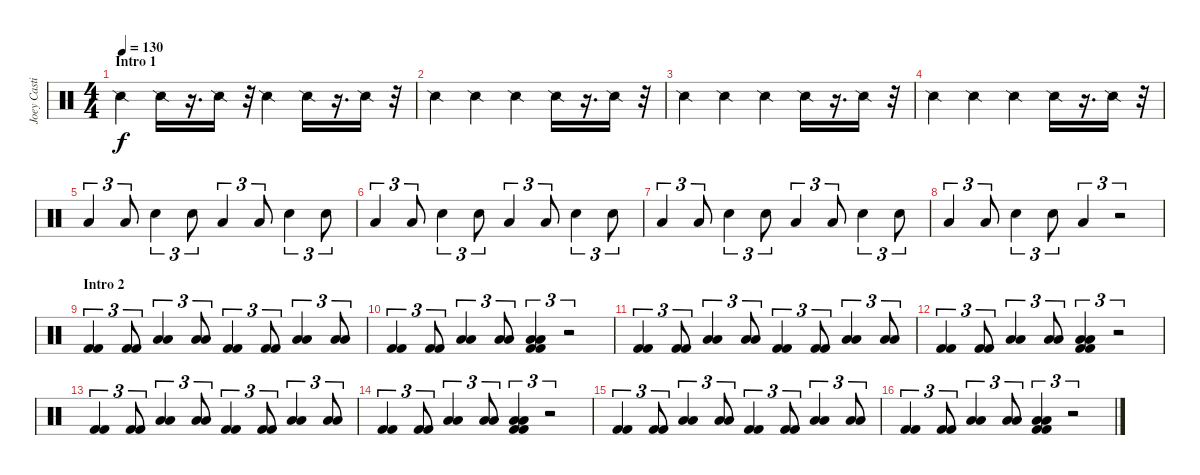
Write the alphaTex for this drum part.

\track ("Joey Castillo" "Joey Casti") {instrument percussion}
\staff {score}
\articulation defaults
\ts (4 4)
\section ("" "Intro 1")
\tempo 130
\clef neutral
\ks c "Snare (side stick) 2".4{dy f} "Snare (side stick) 2".16
r.16{d} "Snare (side stick) 2".16 r.32 "Snare (side stick) 2".4 "Snare (side stick) 2".16 r.16{d} "Snare (side stick) 2".16 r.32 |
"Snare (side stick) 2".4 "Snare (side stick) 2".4 "Snare (side stick) 2".4 "Snare (side stick) 2".16 r.16{d} "Snare (side stick) 2".16 r.32 |
"Snare (side stick) 2".4 "Snare (side stick) 2".4 "Snare (side stick) 2".4 "Snare (side stick) 2".16 r.16{d} "Snare (side stick) 2".16 r.32 |
"Snare (side stick) 2".4 "Snare (side stick) 2".4 "Snare (side stick) 2".4 "Snare (side stick) 2".16 r.16{d} "Snare (side stick) 2".16 r.32 |
"Low Floor Tom (hit)".4{tu (3 2)} "Low Floor Tom (hit)".8{tu (3 2)} "Electric Snare (hit)".4{tu (3 2)} "Electric Snare (hit)".8{tu (3 2)} "Low Floor Tom (hit)".4{tu (3 2)} "Low Floor Tom (hit)".8{tu (3 2)} "Electric Snare (hit)".4{tu (3 2)} "Electric Snare (hit)".8{tu (3 2)} |
"Low Floor Tom (hit)".4{tu (3 2)} "Low Floor Tom (hit)".8{tu (3 2)} "Electric Snare (hit)".4{tu (3 2)} "Electric Snare (hit)".8{tu (3 2)} "Low Floor Tom (hit)".4{tu (3 2)} "Low Floor Tom (hit)".8{tu (3 2)} "Electric Snare (hit)".4{tu (3 2)} "Electric Snare (hit)".8{tu (3 2)} |
"Low Floor Tom (hit)".4{tu (3 2)} "Low Floor Tom (hit)".8{tu (3 2)} "Electric Snare (hit)".4{tu (3 2)} "Electric Snare (hit)".8{tu (3 2)} "Low Floor Tom (hit)".4{tu (3 2)} "Low Floor Tom (hit)".8{tu (3 2)} "Electric Snare (hit)".4{tu (3 2)} "Electric Snare (hit)".8{tu (3 2)} |
"Low Floor Tom (hit)".4{tu (3 2)} "Low Floor Tom (hit)".8{tu (3 2)} "Electric Snare (hit)".4{tu (3 2)} "Electric Snare (hit)".8{tu (3 2)} "Low Floor Tom (hit)".4{tu (3 2)} r.2{tu (3 2)} |
\section ("" "Intro 2")
("Kick (hit) 2" "Kick (hit) 2").4{tu (3 2)} ("Kick (hit) 2" "Kick (hit) 2").8{tu (3 2)} ("Low Floor Tom (hit)" "Low Floor Tom (hit)").4{tu (3 2)} ("Low Floor Tom (hit)" "Low Floor Tom (hit)").8{tu (3 2)} ("Kick (hit) 2" "Kick (hit) 2").4{tu (3 2)} ("Kick (hit) 2" "Kick (hit) 2").8{tu (3 2)} ("Low Floor Tom (hit)" "Low Floor Tom (hit)").4{tu (3 2)} ("Low Floor Tom (hit)" "Low Floor Tom (hit)").8{tu (3 2)} |
("Kick (hit) 2" "Kick (hit) 2").4{tu (3 2)} ("Kick (hit) 2" "Kick (hit) 2").8{tu (3 2)} ("Low Floor Tom (hit)" "Low Floor Tom (hit)").4{tu (3 2)} ("Low Floor Tom (hit)" "Low Floor Tom (hit)").8{tu (3 2)} ("Low Floor Tom (hit)" "Low Floor Tom (hit)" "Kick (hit) 2" "Kick (hit) 2").4{tu (3 2)} r.2{tu (3 2)} |
("Kick (hit) 2" "Kick (hit) 2").4{tu (3 2)} ("Kick (hit) 2" "Kick (hit) 2").8{tu (3 2)} ("Low Floor Tom (hit)" "Low Floor Tom (hit)").4{tu (3 2)} ("Low Floor Tom (hit)" "Low Floor Tom (hit)").8{tu (3 2)} ("Kick (hit) 2" "Kick (hit) 2").4{tu (3 2)} ("Kick (hit) 2" "Kick (hit) 2").8{tu (3 2)} ("Low Floor Tom (hit)" "Low Floor Tom (hit)").4{tu (3 2)} ("Low Floor Tom (hit)" "Low Floor Tom (hit)").8{tu (3 2)} |
("Kick (hit) 2" "Kick (hit) 2").4{tu (3 2)} ("Kick (hit) 2" "Kick (hit) 2").8{tu (3 2)} ("Low Floor Tom (hit)" "Low Floor Tom (hit)").4{tu (3 2)} ("Low Floor Tom (hit)" "Low Floor Tom (hit)").8{tu (3 2)} ("Low Floor Tom (hit)" "Low Floor Tom (hit)" "Kick (hit) 2" "Kick (hit) 2").4{tu (3 2)} r.2{tu (3 2)} |
("Kick (hit) 2" "Kick (hit) 2").4{tu (3 2)} ("Kick (hit) 2" "Kick (hit) 2").8{tu (3 2)} ("Low Floor Tom (hit)" "Low Floor Tom (hit)").4{tu (3 2)} ("Low Floor Tom (hit)" "Low Floor Tom (hit)").8{tu (3 2)} ("Kick (hit) 2" "Kick (hit) 2").4{tu (3 2)} ("Kick (hit) 2" "Kick (hit) 2").8{tu (3 2)} ("Low Floor Tom (hit)" "Low Floor Tom (hit)").4{tu (3 2)} ("Low Floor Tom (hit)" "Low Floor Tom (hit)").8{tu (3 2)} |
("Kick (hit) 2" "Kick (hit) 2").4{tu (3 2)} ("Kick (hit) 2" "Kick (hit) 2").8{tu (3 2)} ("Low Floor Tom (hit)" "Low Floor Tom (hit)").4{tu (3 2)} ("Low Floor Tom (hit)" "Low Floor Tom (hit)").8{tu (3 2)} ("Low Floor Tom (hit)" "Low Floor Tom (hit)" "Kick (hit) 2" "Kick (hit) 2").4{tu (3 2)} r.2{tu (3 2)} |
("Kick (hit) 2" "Kick (hit) 2").4{tu (3 2)} ("Kick (hit) 2" "Kick (hit) 2").8{tu (3 2)} ("Low Floor Tom (hit)" "Low Floor Tom (hit)").4{tu (3 2)} ("Low Floor Tom (hit)" "Low Floor Tom (hit)").8{tu (3 2)} ("Kick (hit) 2" "Kick (hit) 2").4{tu (3 2)} ("Kick (hit) 2" "Kick (hit) 2").8{tu (3 2)} ("Low Floor Tom (hit)" "Low Floor Tom (hit)").4{tu (3 2)} ("Low Floor Tom (hit)" "Low Floor Tom (hit)").8{tu (3 2)} |
("Kick (hit) 2" "Kick (hit) 2").4{tu (3 2)} ("Kick (hit) 2" "Kick (hit) 2").8{tu (3 2)} ("Low Floor Tom (hit)" "Low Floor Tom (hit)").4{tu (3 2)} ("Low Floor Tom (hit)" "Low Floor Tom (hit)").8{tu (3 2)} ("Low Floor Tom (hit)" "Low Floor Tom (hit)" "Kick (hit) 2" "Kick (hit) 2").4{tu (3 2)} r.2{tu (3 2)}
